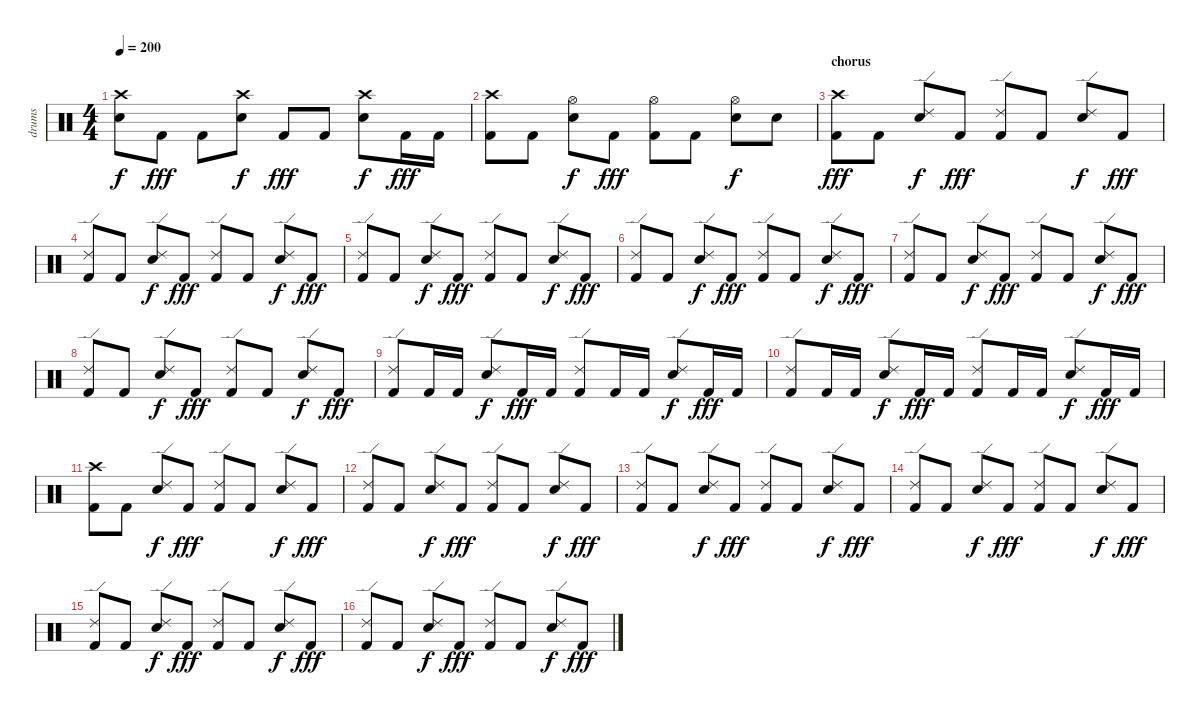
\track ("drums" "drums") {instrument percussion}
\staff {score}
\articulation defaults
\ts (4 4)
\tempo 200
\clef neutral
\ks c
("Crash high (hit)" "Snare (hit) 2").8{dy f} "Kick (hit) 2".8{dy fff} "Kick (hit) 2".8 ("Crash high (hit)" "Snare (hit) 2").8{dy f} "Kick (hit) 2".8{dy fff} "Kick (hit) 2".8 ("Crash high (hit)" "Snare (hit) 2").8{dy f} "Kick (hit) 2".16{dy fff} "Kick (hit) 2".16 |
("Crash high (hit)" "Kick (hit) 2").8 "Kick (hit) 2".8 ("Hi-Hat (open)" "Snare (hit) 2").8{dy f} "Kick (hit) 2".8{dy fff} ("Hi-Hat (open)" "Kick (hit) 2").8 "Kick (hit) 2".8 ("Hi-Hat (open)" "Snare (hit) 2").8{dy f} "Snare (hit) 2".8 |
\section ("" "chorus")
("Crash high (hit)" "Kick (hit) 2").8{dy fff} "Kick (hit) 2".8 ("Ride (edge) 2" "Snare (hit) 2").8{dy f} "Kick (hit) 2".8{dy fff} ("Ride (edge) 2" "Kick (hit) 2").8 "Kick (hit) 2".8 ("Ride (edge) 2" "Snare (hit) 2").8{dy f} "Kick (hit) 2".8{dy fff} |
("Ride (edge) 2" "Kick (hit) 2").8 "Kick (hit) 2".8 ("Ride (edge) 2" "Snare (hit) 2").8{dy f} "Kick (hit) 2".8{dy fff} ("Ride (edge) 2" "Kick (hit) 2").8 "Kick (hit) 2".8 ("Ride (edge) 2" "Snare (hit) 2").8{dy f} "Kick (hit) 2".8{dy fff} |
("Ride (edge) 2" "Kick (hit) 2").8 "Kick (hit) 2".8 ("Ride (edge) 2" "Snare (hit) 2").8{dy f} "Kick (hit) 2".8{dy fff} ("Ride (edge) 2" "Kick (hit) 2").8 "Kick (hit) 2".8 ("Ride (edge) 2" "Snare (hit) 2").8{dy f} "Kick (hit) 2".8{dy fff} |
("Ride (edge) 2" "Kick (hit) 2").8 "Kick (hit) 2".8 ("Ride (edge) 2" "Snare (hit) 2").8{dy f} "Kick (hit) 2".8{dy fff} ("Ride (edge) 2" "Kick (hit) 2").8 "Kick (hit) 2".8 ("Ride (edge) 2" "Snare (hit) 2").8{dy f} "Kick (hit) 2".8{dy fff} |
("Ride (edge) 2" "Kick (hit) 2").8 "Kick (hit) 2".8 ("Ride (edge) 2" "Snare (hit) 2").8{dy f} "Kick (hit) 2".8{dy fff} ("Ride (edge) 2" "Kick (hit) 2").8 "Kick (hit) 2".8 ("Ride (edge) 2" "Snare (hit) 2").8{dy f} "Kick (hit) 2".8{dy fff} |
("Ride (edge) 2" "Kick (hit) 2").8 "Kick (hit) 2".8 ("Ride (edge) 2" "Snare (hit) 2").8{dy f} "Kick (hit) 2".8{dy fff} ("Ride (edge) 2" "Kick (hit) 2").8 "Kick (hit) 2".8 ("Ride (edge) 2" "Snare (hit) 2").8{dy f} "Kick (hit) 2".8{dy fff} |
("Ride (edge) 2" "Kick (hit) 2").8 "Kick (hit) 2".16 "Kick (hit) 2".16 ("Ride (edge) 2" "Snare (hit) 2").8{dy f} "Kick (hit) 2".16{dy fff} "Kick (hit) 2".16 ("Ride (edge) 2" "Kick (hit) 2").8 "Kick (hit) 2".16 "Kick (hit) 2".16 ("Ride (edge) 2" "Snare (hit) 2").8{dy f} "Kick (hit) 2".16{dy fff} "Kick (hit) 2".16 |
("Ride (edge) 2" "Kick (hit) 2").8 "Kick (hit) 2".16 "Kick (hit) 2".16 ("Ride (edge) 2" "Snare (hit) 2").8{dy f} "Kick (hit) 2".16{dy fff} "Kick (hit) 2".16 ("Ride (edge) 2" "Kick (hit) 2").8 "Kick (hit) 2".16 "Kick (hit) 2".16 ("Ride (edge) 2" "Snare (hit) 2").8{dy f} "Kick (hit) 2".16{dy fff} "Kick (hit) 2".16 |
("Crash high (hit)" "Kick (hit) 2").8 "Kick (hit) 2".8 ("Ride (edge) 2" "Snare (hit) 2").8{dy f} "Kick (hit) 2".8{dy fff} ("Ride (edge) 2" "Kick (hit) 2").8 "Kick (hit) 2".8 ("Ride (edge) 2" "Snare (hit) 2").8{dy f} "Kick (hit) 2".8{dy fff} |
("Ride (edge) 2" "Kick (hit) 2").8 "Kick (hit) 2".8 ("Ride (edge) 2" "Snare (hit) 2").8{dy f} "Kick (hit) 2".8{dy fff} ("Ride (edge) 2" "Kick (hit) 2").8 "Kick (hit) 2".8 ("Ride (edge) 2" "Snare (hit) 2").8{dy f} "Kick (hit) 2".8{dy fff} |
("Ride (edge) 2" "Kick (hit) 2").8 "Kick (hit) 2".8 ("Ride (edge) 2" "Snare (hit) 2").8{dy f} "Kick (hit) 2".8{dy fff} ("Ride (edge) 2" "Kick (hit) 2").8 "Kick (hit) 2".8 ("Ride (edge) 2" "Snare (hit) 2").8{dy f} "Kick (hit) 2".8{dy fff} |
("Ride (edge) 2" "Kick (hit) 2").8 "Kick (hit) 2".8 ("Ride (edge) 2" "Snare (hit) 2").8{dy f} "Kick (hit) 2".8{dy fff} ("Ride (edge) 2" "Kick (hit) 2").8 "Kick (hit) 2".8 ("Ride (edge) 2" "Snare (hit) 2").8{dy f} "Kick (hit) 2".8{dy fff} |
("Ride (edge) 2" "Kick (hit) 2").8 "Kick (hit) 2".8 ("Ride (edge) 2" "Snare (hit) 2").8{dy f} "Kick (hit) 2".8{dy fff} ("Ride (edge) 2" "Kick (hit) 2").8 "Kick (hit) 2".8 ("Ride (edge) 2" "Snare (hit) 2").8{dy f} "Kick (hit) 2".8{dy fff} |
("Ride (edge) 2" "Kick (hit) 2").8 "Kick (hit) 2".8 ("Ride (edge) 2" "Snare (hit) 2").8{dy f} "Kick (hit) 2".8{dy fff} ("Ride (edge) 2" "Kick (hit) 2").8 "Kick (hit) 2".8 ("Ride (edge) 2" "Snare (hit) 2").8{dy f} "Kick (hit) 2".8{dy fff}
